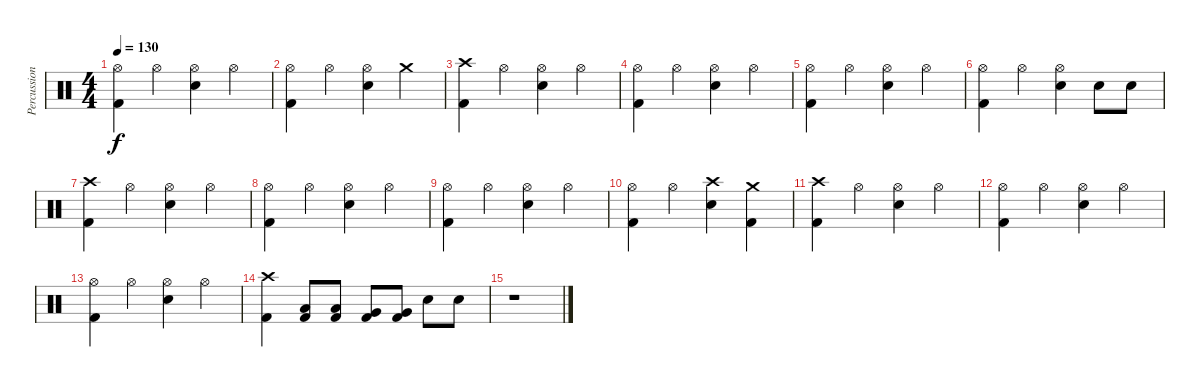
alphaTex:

\track ("Percussion" "Percussion") {instrument percussion}
\staff {score}
\articulation defaults
\ts (4 4)
\tempo 130
\clef neutral
\ks c
("Hi-Hat (open)" "Kick (hit) 2").4{dy f} "Hi-Hat (open)".4 ("Hi-Hat (open)" "Snare (hit) 2").4 "Hi-Hat (open)".4 |
("Hi-Hat (open)" "Kick (hit) 2").4 "Hi-Hat (open)".4 ("Hi-Hat (open)" "Snare (hit) 2").4 "Crash medium (hit)".4 |
("Crash high (hit)" "Kick (hit) 2").4 "Hi-Hat (open)".4 ("Hi-Hat (open)" "Snare (hit) 2").4 "Hi-Hat (open)".4 |
("Hi-Hat (open)" "Kick (hit) 2").4 "Hi-Hat (open)".4 ("Hi-Hat (open)" "Snare (hit) 2").4 "Hi-Hat (open)".4 |
("Hi-Hat (open)" "Kick (hit) 2").4 "Hi-Hat (open)".4 ("Hi-Hat (open)" "Snare (hit) 2").4 "Hi-Hat (open)".4 |
("Hi-Hat (open)" "Kick (hit) 2").4 "Hi-Hat (open)".4 ("Hi-Hat (open)" "Snare (hit) 2").4 "Snare (hit) 2".8 "Snare (hit) 2".8 |
("Crash high (hit)" "Kick (hit) 2").4 "Hi-Hat (open)".4 ("Hi-Hat (open)" "Snare (hit) 2").4 "Hi-Hat (open)".4 |
("Hi-Hat (open)" "Kick (hit) 2").4 "Hi-Hat (open)".4 ("Hi-Hat (open)" "Snare (hit) 2").4 "Hi-Hat (open)".4 |
("Hi-Hat (open)" "Kick (hit) 2").4 "Hi-Hat (open)".4 ("Hi-Hat (open)" "Snare (hit) 2").4 "Hi-Hat (open)".4 |
("Hi-Hat (open)" "Kick (hit) 2").4 "Hi-Hat (open)".4 ("Crash high (hit)" "Snare (hit) 2").4 ("Crash medium (hit)" "Kick (hit) 2").4 |
("Crash high (hit)" "Kick (hit) 2").4 "Hi-Hat (open)".4 ("Hi-Hat (open)" "Snare (hit) 2").4 "Hi-Hat (open)".4 |
("Hi-Hat (open)" "Kick (hit) 2").4 "Hi-Hat (open)".4 ("Hi-Hat (open)" "Snare (hit) 2").4 "Hi-Hat (open)".4 |
("Hi-Hat (open)" "Kick (hit) 2").4 "Hi-Hat (open)".4 ("Hi-Hat (open)" "Snare (hit) 2").4 "Hi-Hat (open)".4 |
("Crash high (hit)" "Kick (hit) 2").4 ("Low Tom (hit)" "Kick (hit) 2").8 ("Low Tom (hit)" "Kick (hit) 2").8 ("Very Low Tom (hit)" "Kick (hit) 2").8 ("Very Low Tom (hit)" "Kick (hit) 2").8 "Snare (hit) 2".8 "Snare (hit) 2".8 |
r.1
